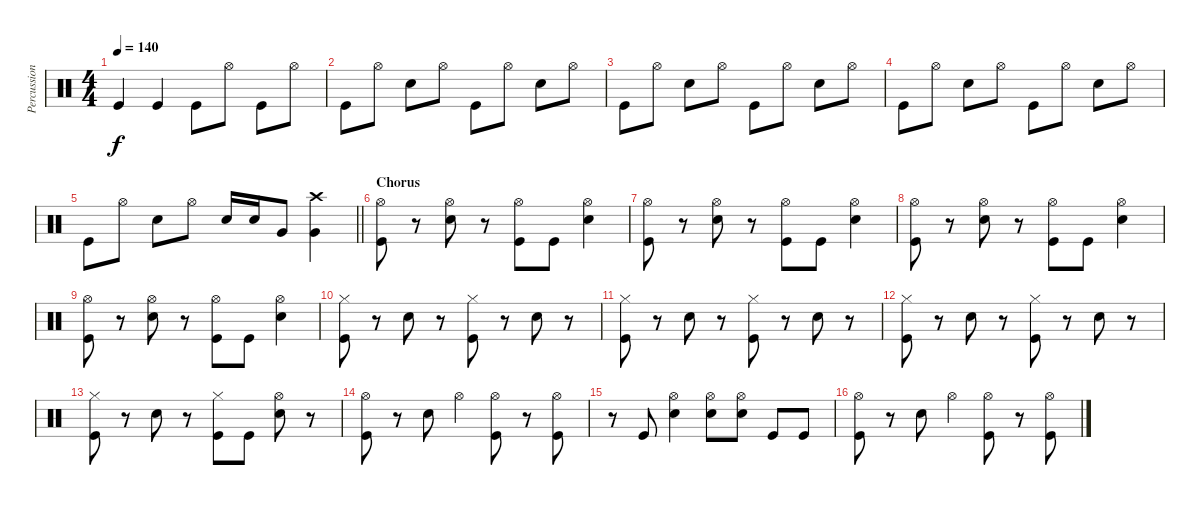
\track ("Percussions" "Percussion") {instrument percussion}
\staff {score}
\articulation defaults
\ts (4 4)
\tempo 140
\clef neutral
\ks c "Kick (hit)".4{dy f} "Kick (hit)".4 "Kick (hit)".8 "Hi-Hat (open)".8 "Kick (hit)".8 "Hi-Hat (open)".8
|
"Kick (hit)".8 "Hi-Hat (open)".8 "Snare (hit) 2".8 "Hi-Hat (open)".8 "Kick (hit)".8 "Hi-Hat (open)".8 "Snare (hit) 2".8 "Hi-Hat (open)".8 |
"Kick (hit)".8 "Hi-Hat (open)".8 "Snare (hit) 2".8 "Hi-Hat (open)".8 "Kick (hit)".8 "Hi-Hat (open)".8 "Snare (hit) 2".8 "Hi-Hat (open)".8 |
"Kick (hit)".8 "Hi-Hat (open)".8 "Snare (hit) 2".8 "Hi-Hat (open)".8 "Kick (hit)".8 "Hi-Hat (open)".8 "Snare (hit) 2".8 "Hi-Hat (open)".8 |
\barLineRight lightlight "Kick (hit)".8 "Hi-Hat (open)".8 "Snare (hit) 2".8 "Hi-Hat (open)".8 "Snare (hit) 2".16 "Snare (hit) 2".16 "Very Low Tom (hit)".8
("Crash high (hit)" "Very Low Tom (hit)").4 |
\section ("" "Chorus")
("Hi-Hat (open)" "Kick (hit)").8 r.8 ("Hi-Hat (open)" "Snare (hit) 2").8 r.8 ("Hi-Hat (open)" "Kick (hit)").8 "Kick (hit)".8 ("Hi-Hat (open)" "Snare (hit) 2").4 |
("Hi-Hat (open)" "Kick (hit)").8 r.8 ("Hi-Hat (open)" "Snare (hit) 2").8 r.8 ("Hi-Hat (open)" "Kick (hit)").8 "Kick (hit)".8 ("Hi-Hat (open)" "Snare (hit) 2").4 |
("Hi-Hat (open)" "Kick (hit)").8 r.8 ("Hi-Hat (open)" "Snare (hit) 2").8 r.8 ("Hi-Hat (open)" "Kick (hit)").8 "Kick (hit)".8 ("Hi-Hat (open)" "Snare (hit) 2").4 |
("Hi-Hat (open)" "Kick (hit)").8 r.8 ("Hi-Hat (open)" "Snare (hit) 2").8 r.8 ("Hi-Hat (open)" "Kick (hit)").8 "Kick (hit)".8 ("Hi-Hat (open)" "Snare (hit) 2").4 |
("Hi-Hat (closed)" "Kick (hit)").8 r.8 "Snare (hit) 2".8 r.8 ("Hi-Hat (closed)" "Kick (hit)").8 r.8 "Snare (hit) 2".8 r.8 |
("Hi-Hat (closed)" "Kick (hit)").8 r.8 "Snare (hit) 2".8 r.8 ("Hi-Hat (closed)" "Kick (hit)").8 r.8 "Snare (hit) 2".8 r.8 |
("Hi-Hat (closed)" "Kick (hit)").8 r.8 "Snare (hit) 2".8 r.8 ("Hi-Hat (closed)" "Kick (hit)").8 r.8 "Snare (hit) 2".8 r.8 |
("Hi-Hat (closed)" "Kick (hit)").8 r.8 "Snare (hit) 2".8 r.8 ("Hi-Hat (closed)" "Kick (hit)").8 "Kick (hit)".8 ("Hi-Hat (open)" "Snare (hit) 2").8 r.8 |
("Hi-Hat (open)" "Kick (hit)").8 r.8 "Snare (hit) 2".8 "Hi-Hat (open)".4 ("Hi-Hat (open)" "Kick (hit)").8 r.8 ("Hi-Hat (open)" "Kick (hit)").8 |
r.8 "Kick (hit)".8 ("Hi-Hat (open)" "Snare (hit) 2").4 ("Hi-Hat (open)" "Snare (hit) 2").8 ("Hi-Hat (open)" "Snare (hit) 2").8 "Kick (hit)".8 "Kick (hit)".8 |
("Hi-Hat (open)" "Kick (hit)").8 r.8 "Snare (hit) 2".8 "Hi-Hat (open)".4 ("Hi-Hat (open)" "Kick (hit)").8 r.8 ("Hi-Hat (open)" "Kick (hit)").8
